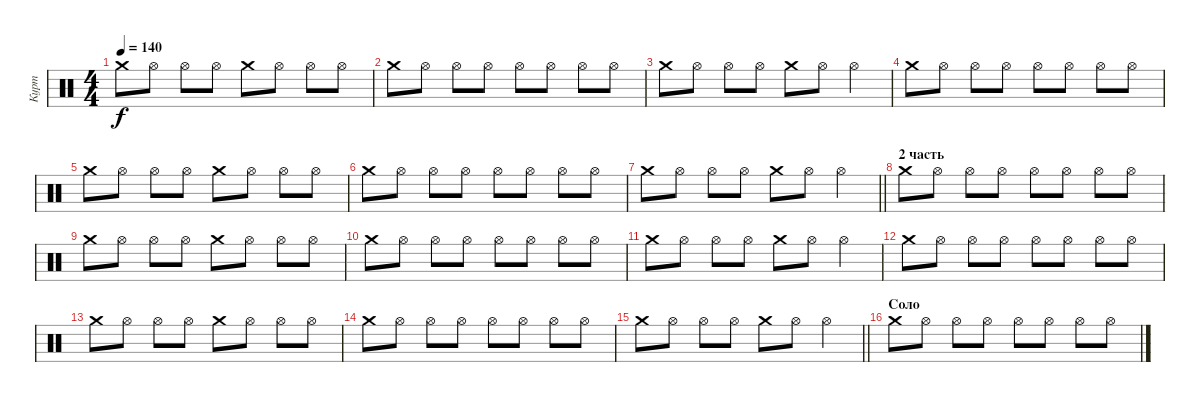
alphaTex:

\track ("Курт" "Курт") {instrument percussion}
\staff {score}
\articulation defaults
\ts (4 4)
\tempo 140
\clef neutral
\ks c "Crash medium (hit)".8{dy f} "Hi-Hat (open)".8 "Hi-Hat (open)".8 "Hi-Hat (open)".8 "Crash medium (hit)".8 "Hi-Hat (open)".8 "Hi-Hat (open)".8 "Hi-Hat (open)".8
|
"Crash medium (hit)".8 "Hi-Hat (open)".8 "Hi-Hat (open)".8 "Hi-Hat (open)".8 "Hi-Hat (open)".8 "Hi-Hat (open)".8 "Hi-Hat (open)".8 "Hi-Hat (open)".8 |
"Crash medium (hit)".8 "Hi-Hat (open)".8 "Hi-Hat (open)".8 "Hi-Hat (open)".8 "Crash medium (hit)".8 "Hi-Hat (open)".8 "Hi-Hat (open)".4 |
"Crash medium (hit)".8 "Hi-Hat (open)".8 "Hi-Hat (open)".8 "Hi-Hat (open)".8 "Hi-Hat (open)".8 "Hi-Hat (open)".8 "Hi-Hat (open)".8 "Hi-Hat (open)".8 |
"Crash medium (hit)".8 "Hi-Hat (open)".8 "Hi-Hat (open)".8 "Hi-Hat (open)".8 "Crash medium (hit)".8 "Hi-Hat (open)".8 "Hi-Hat (open)".8 "Hi-Hat (open)".8 |
"Crash medium (hit)".8 "Hi-Hat (open)".8 "Hi-Hat (open)".8 "Hi-Hat (open)".8 "Hi-Hat (open)".8 "Hi-Hat (open)".8 "Hi-Hat (open)".8 "Hi-Hat (open)".8 |
\barLineRight lightlight "Crash medium (hit)".8 "Hi-Hat (open)".8 "Hi-Hat (open)".8 "Hi-Hat (open)".8 "Crash medium (hit)".8 "Hi-Hat (open)".8 "Hi-Hat (open)".4
|
\section ("" "2 часть")
"Crash medium (hit)".8 "Hi-Hat (open)".8 "Hi-Hat (open)".8 "Hi-Hat (open)".8 "Hi-Hat (open)".8 "Hi-Hat (open)".8 "Hi-Hat (open)".8 "Hi-Hat (open)".8 |
"Crash medium (hit)".8 "Hi-Hat (open)".8 "Hi-Hat (open)".8 "Hi-Hat (open)".8 "Crash medium (hit)".8 "Hi-Hat (open)".8 "Hi-Hat (open)".8 "Hi-Hat (open)".8 |
"Crash medium (hit)".8 "Hi-Hat (open)".8 "Hi-Hat (open)".8 "Hi-Hat (open)".8 "Hi-Hat (open)".8 "Hi-Hat (open)".8 "Hi-Hat (open)".8 "Hi-Hat (open)".8 |
"Crash medium (hit)".8 "Hi-Hat (open)".8 "Hi-Hat (open)".8 "Hi-Hat (open)".8 "Crash medium (hit)".8 "Hi-Hat (open)".8 "Hi-Hat (open)".4 |
"Crash medium (hit)".8 "Hi-Hat (open)".8 "Hi-Hat (open)".8 "Hi-Hat (open)".8 "Hi-Hat (open)".8 "Hi-Hat (open)".8 "Hi-Hat (open)".8 "Hi-Hat (open)".8 |
"Crash medium (hit)".8 "Hi-Hat (open)".8 "Hi-Hat (open)".8 "Hi-Hat (open)".8 "Crash medium (hit)".8 "Hi-Hat (open)".8 "Hi-Hat (open)".8 "Hi-Hat (open)".8 |
"Crash medium (hit)".8 "Hi-Hat (open)".8 "Hi-Hat (open)".8 "Hi-Hat (open)".8 "Hi-Hat (open)".8 "Hi-Hat (open)".8 "Hi-Hat (open)".8 "Hi-Hat (open)".8 |
\barLineRight lightlight "Crash medium (hit)".8 "Hi-Hat (open)".8 "Hi-Hat (open)".8 "Hi-Hat (open)".8 "Crash medium (hit)".8 "Hi-Hat (open)".8 "Hi-Hat (open)".4
|
\section ("" "Соло")
"Crash medium (hit)".8 "Hi-Hat (open)".8 "Hi-Hat (open)".8 "Hi-Hat (open)".8 "Hi-Hat (open)".8 "Hi-Hat (open)".8 "Hi-Hat (open)".8 "Hi-Hat (open)".8
